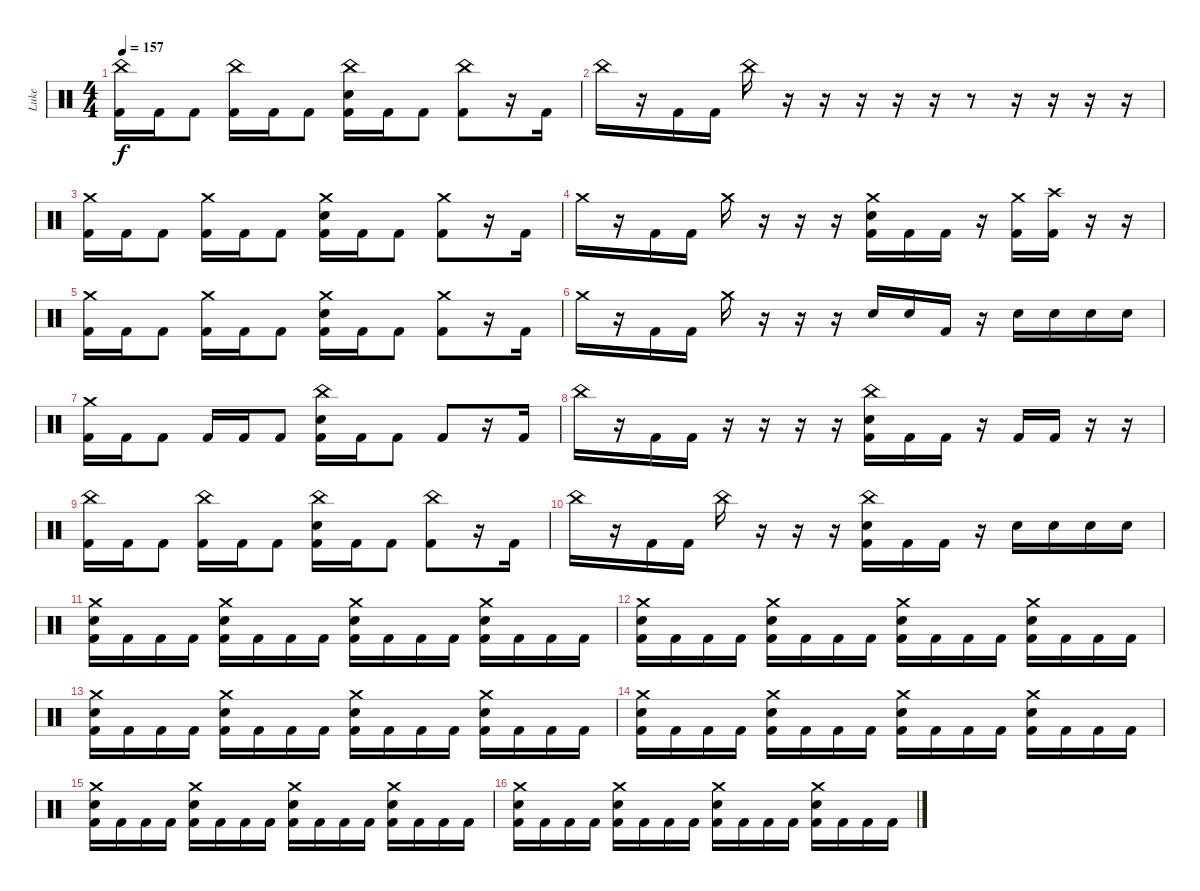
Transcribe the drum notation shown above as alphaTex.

\track ("Luke" "Luke") {instrument percussion}
\staff {score}
\articulation defaults
\ts (4 4)
\tempo 157
\clef neutral
\ks c
("China (hit)" "Kick (hit) 2").16{dy f} "Kick (hit) 2".16 "Kick (hit) 2".8 ("China (hit)" "Kick (hit) 2").16 "Kick (hit) 2".16 "Kick (hit) 2".8 ("China (hit)" "Electric Snare (hit)" "Kick (hit) 2").16 "Kick (hit) 2".16 "Kick (hit) 2".8 ("China (hit)" "Kick (hit) 2").8 r.16 "Kick (hit) 2".16 |
"China (hit)".16 r.16 "Kick (hit) 2".16 "Kick (hit) 2".16 "China (hit)".16 r.16 r.16 r.16 r.16 r.16 r.8 r.16 r.16 r.16 r.16 |
("Crash medium (hit)" "Kick (hit) 2").16 "Kick (hit) 2".16 "Kick (hit) 2".8 ("Crash medium (hit)" "Kick (hit) 2").16 "Kick (hit) 2".16 "Kick (hit) 2".8 ("Crash medium (hit)" "Electric Snare (hit)" "Kick (hit) 2").16 "Kick (hit) 2".16 "Kick (hit) 2".8 ("Crash medium (hit)" "Kick (hit) 2").8 r.16 "Kick (hit) 2".16 |
"Crash medium (hit)".16 r.16 "Kick (hit) 2".16 "Kick (hit) 2".16 "Crash medium (hit)".16 r.16 r.16 r.16 ("Crash medium (hit)" "Electric Snare (hit)" "Kick (hit) 2").16 "Kick (hit) 2".16 "Kick (hit) 2".16 r.16 ("Crash medium (hit)" "Kick (hit) 2").16 ("Crash high (hit)" "Kick (hit) 2").16 r.16 r.16 |
("Crash medium (hit)" "Kick (hit) 2").16 "Kick (hit) 2".16 "Kick (hit) 2".8 ("Crash medium (hit)" "Kick (hit) 2").16 "Kick (hit) 2".16 "Kick (hit) 2".8 ("Crash medium (hit)" "Electric Snare (hit)" "Kick (hit) 2").16 "Kick (hit) 2".16 "Kick (hit) 2".8 ("Crash medium (hit)" "Kick (hit) 2").8 r.16 "Kick (hit) 2".16 |
"Crash medium (hit)".16 r.16 "Kick (hit) 2".16 "Kick (hit) 2".16 "Crash medium (hit)".16 r.16 r.16 r.16 "Electric Snare (hit)".16 "Electric Snare (hit)".16 "Kick (hit) 2".16 r.16 "Electric Snare (hit)".16 "Electric Snare (hit)".16 "Electric Snare (hit)".16 "Electric Snare (hit)".16 |
("Crash medium (hit)" "Kick (hit) 2").16 "Kick (hit) 2".16 "Kick (hit) 2".8 "Kick (hit) 2".16 "Kick (hit) 2".16 "Kick (hit) 2".8 ("China (hit)" "Electric Snare (hit)" "Kick (hit) 2").16 "Kick (hit) 2".16 "Kick (hit) 2".8 "Kick (hit) 2".8 r.16 "Kick (hit) 2".16 |
"China (hit)".16 r.16 "Kick (hit) 2".16 "Kick (hit) 2".16 r.16 r.16 r.16 r.16 ("China (hit)" "Electric Snare (hit)" "Kick (hit) 2").16 "Kick (hit) 2".16 "Kick (hit) 2".16 r.16 "Kick (hit) 2".16 "Kick (hit) 2".16 r.16 r.16 |
("China (hit)" "Kick (hit) 2").16 "Kick (hit) 2".16 "Kick (hit) 2".8 ("China (hit)" "Kick (hit) 2").16 "Kick (hit) 2".16 "Kick (hit) 2".8 ("China (hit)" "Electric Snare (hit)" "Kick (hit) 2").16 "Kick (hit) 2".16 "Kick (hit) 2".8 ("China (hit)" "Kick (hit) 2").8 r.16 "Kick (hit) 2".16 |
"China (hit)".16 r.16 "Kick (hit) 2".16 "Kick (hit) 2".16 "China (hit)".16 r.16 r.16 r.16 ("China (hit)" "Electric Snare (hit)" "Kick (hit) 2").16 "Kick (hit) 2".16 "Kick (hit) 2".16 r.16 "Electric Snare (hit)".16 "Electric Snare (hit)".16 "Electric Snare (hit)".16 "Electric Snare (hit)".16 |
("Crash medium (hit)" "Electric Snare (hit)" "Kick (hit) 2").16 "Kick (hit) 2".16 "Kick (hit) 2".16 "Kick (hit) 2".16 ("Crash medium (hit)" "Electric Snare (hit)" "Kick (hit) 2").16 "Kick (hit) 2".16 "Kick (hit) 2".16 "Kick (hit) 2".16 ("Crash medium (hit)" "Electric Snare (hit)" "Kick (hit) 2").16 "Kick (hit) 2".16 "Kick (hit) 2".16 "Kick (hit) 2".16 ("Crash medium (hit)" "Electric Snare (hit)" "Kick (hit) 2").16 "Kick (hit) 2".16 "Kick (hit) 2".16 "Kick (hit) 2".16 |
("Crash medium (hit)" "Electric Snare (hit)" "Kick (hit) 2").16 "Kick (hit) 2".16 "Kick (hit) 2".16 "Kick (hit) 2".16 ("Crash medium (hit)" "Electric Snare (hit)" "Kick (hit) 2").16 "Kick (hit) 2".16 "Kick (hit) 2".16 "Kick (hit) 2".16 ("Crash medium (hit)" "Electric Snare (hit)" "Kick (hit) 2").16 "Kick (hit) 2".16 "Kick (hit) 2".16 "Kick (hit) 2".16 ("Crash medium (hit)" "Electric Snare (hit)" "Kick (hit) 2").16 "Kick (hit) 2".16 "Kick (hit) 2".16 "Kick (hit) 2".16 |
("Crash medium (hit)" "Electric Snare (hit)" "Kick (hit) 2").16 "Kick (hit) 2".16 "Kick (hit) 2".16 "Kick (hit) 2".16 ("Crash medium (hit)" "Electric Snare (hit)" "Kick (hit) 2").16 "Kick (hit) 2".16 "Kick (hit) 2".16 "Kick (hit) 2".16 ("Crash medium (hit)" "Electric Snare (hit)" "Kick (hit) 2").16 "Kick (hit) 2".16 "Kick (hit) 2".16 "Kick (hit) 2".16 ("Crash medium (hit)" "Electric Snare (hit)" "Kick (hit) 2").16 "Kick (hit) 2".16 "Kick (hit) 2".16 "Kick (hit) 2".16 |
("Crash medium (hit)" "Electric Snare (hit)" "Kick (hit) 2").16 "Kick (hit) 2".16 "Kick (hit) 2".16 "Kick (hit) 2".16 ("Crash medium (hit)" "Electric Snare (hit)" "Kick (hit) 2").16 "Kick (hit) 2".16 "Kick (hit) 2".16 "Kick (hit) 2".16 ("Crash medium (hit)" "Electric Snare (hit)" "Kick (hit) 2").16 "Kick (hit) 2".16 "Kick (hit) 2".16 "Kick (hit) 2".16 ("Crash medium (hit)" "Electric Snare (hit)" "Kick (hit) 2").16 "Kick (hit) 2".16 "Kick (hit) 2".16 "Kick (hit) 2".16 |
("Crash medium (hit)" "Electric Snare (hit)" "Kick (hit) 2").16 "Kick (hit) 2".16 "Kick (hit) 2".16 "Kick (hit) 2".16 ("Crash medium (hit)" "Electric Snare (hit)" "Kick (hit) 2").16 "Kick (hit) 2".16 "Kick (hit) 2".16 "Kick (hit) 2".16 ("Crash medium (hit)" "Electric Snare (hit)" "Kick (hit) 2").16 "Kick (hit) 2".16 "Kick (hit) 2".16 "Kick (hit) 2".16 ("Crash medium (hit)" "Electric Snare (hit)" "Kick (hit) 2").16 "Kick (hit) 2".16 "Kick (hit) 2".16 "Kick (hit) 2".16 |
("Crash medium (hit)" "Electric Snare (hit)" "Kick (hit) 2").16 "Kick (hit) 2".16 "Kick (hit) 2".16 "Kick (hit) 2".16 ("Crash medium (hit)" "Electric Snare (hit)" "Kick (hit) 2").16 "Kick (hit) 2".16 "Kick (hit) 2".16 "Kick (hit) 2".16 ("Crash medium (hit)" "Electric Snare (hit)" "Kick (hit) 2").16 "Kick (hit) 2".16 "Kick (hit) 2".16 "Kick (hit) 2".16 ("Crash medium (hit)" "Electric Snare (hit)" "Kick (hit) 2").16 "Kick (hit) 2".16 "Kick (hit) 2".16 "Kick (hit) 2".16
